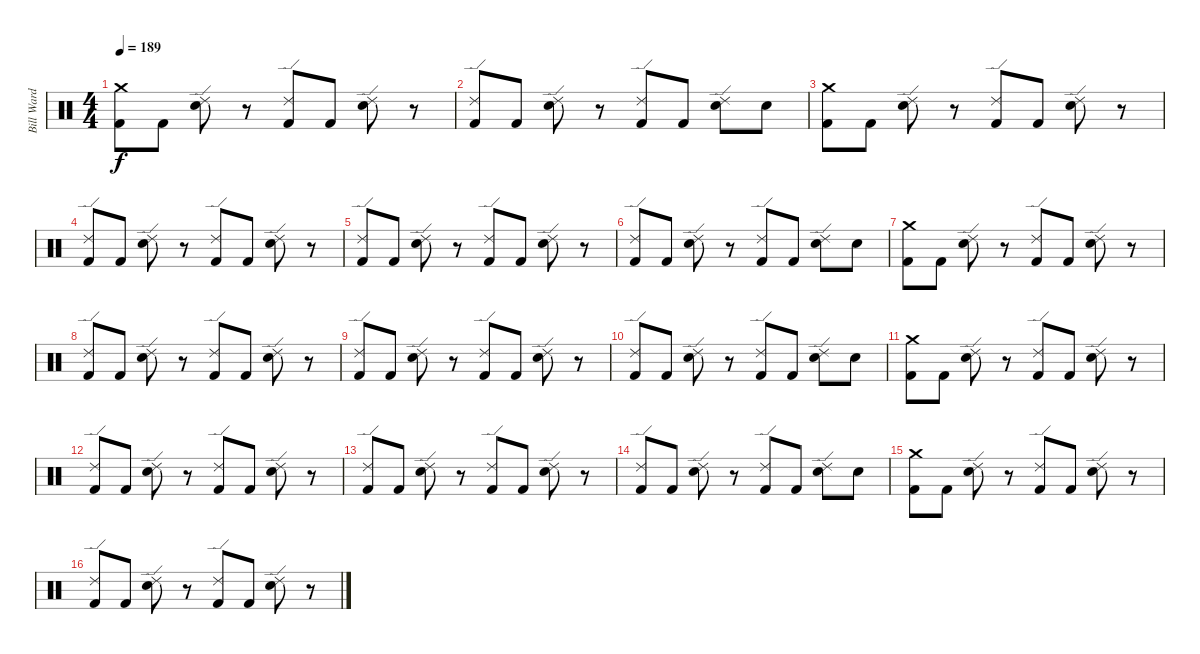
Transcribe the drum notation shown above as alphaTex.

\track ("Bill Ward" "Bill Ward") {instrument percussion}
\staff {score}
\articulation defaults
\ts (4 4)
\tempo 189
\clef neutral
\ks c
("Crash medium (hit)" "Kick (hit) 2").8{dy f} "Kick (hit) 2".8 ("Ride (edge) 2" "Electric Snare (hit)").8 r.8 ("Kick (hit) 2" "Ride (edge) 2").8 "Kick (hit) 2".8 ("Ride (edge) 2" "Electric Snare (hit)").8 r.8 |
("Kick (hit) 2" "Ride (edge) 2").8 "Kick (hit) 2".8 ("Ride (edge) 2" "Electric Snare (hit)").8 r.8 ("Ride (edge) 2" "Kick (hit) 2").8 "Kick (hit) 2".8 ("Electric Snare (hit)" "Ride (edge) 2").8 "Electric Snare (hit)".8 |
("Kick (hit) 2" "Crash medium (hit)").8 "Kick (hit) 2".8 ("Electric Snare (hit)" "Ride (edge) 2").8 r.8 ("Ride (edge) 2" "Kick (hit) 2").8 "Kick (hit) 2".8 ("Electric Snare (hit)" "Ride (edge) 2").8 r.8 |
("Ride (edge) 2" "Kick (hit) 2").8 "Kick (hit) 2".8 ("Electric Snare (hit)" "Ride (edge) 2").8 r.8 ("Ride (edge) 2" "Kick (hit) 2").8 "Kick (hit) 2".8 ("Electric Snare (hit)" "Ride (edge) 2").8 r.8 |
("Ride (edge) 2" "Kick (hit) 2").8 "Kick (hit) 2".8 ("Electric Snare (hit)" "Ride (edge) 2").8 r.8 ("Kick (hit) 2" "Ride (edge) 2").8 "Kick (hit) 2".8 ("Ride (edge) 2" "Electric Snare (hit)").8 r.8 |
("Ride (edge) 2" "Kick (hit) 2").8 "Kick (hit) 2".8 ("Ride (edge) 2" "Electric Snare (hit)").8 r.8 ("Ride (edge) 2" "Kick (hit) 2").8 "Kick (hit) 2".8 ("Ride (edge) 2" "Electric Snare (hit)").8 "Electric Snare (hit)".8 |
("Kick (hit) 2" "Crash medium (hit)").8 "Kick (hit) 2".8 ("Ride (edge) 2" "Electric Snare (hit)").8 r.8 ("Kick (hit) 2" "Ride (edge) 2").8 "Kick (hit) 2".8 ("Electric Snare (hit)" "Ride (edge) 2").8 r.8 |
("Kick (hit) 2" "Ride (edge) 2").8 "Kick (hit) 2".8 ("Electric Snare (hit)" "Ride (edge) 2").8 r.8 ("Kick (hit) 2" "Ride (edge) 2").8 "Kick (hit) 2".8 ("Electric Snare (hit)" "Ride (edge) 2").8 r.8 |
("Ride (edge) 2" "Kick (hit) 2").8 "Kick (hit) 2".8 ("Ride (edge) 2" "Electric Snare (hit)").8 r.8 ("Ride (edge) 2" "Kick (hit) 2").8 "Kick (hit) 2".8 ("Ride (edge) 2" "Electric Snare (hit)").8 r.8 |
("Ride (edge) 2" "Kick (hit) 2").8 "Kick (hit) 2".8 ("Ride (edge) 2" "Electric Snare (hit)").8 r.8 ("Kick (hit) 2" "Ride (edge) 2").8 "Kick (hit) 2".8 ("Ride (edge) 2" "Electric Snare (hit)").8 "Electric Snare (hit)".8 |
("Kick (hit) 2" "Crash medium (hit)").8 "Kick (hit) 2".8 ("Ride (edge) 2" "Electric Snare (hit)").8 r.8 ("Kick (hit) 2" "Ride (edge) 2").8 "Kick (hit) 2".8 ("Ride (edge) 2" "Electric Snare (hit)").8 r.8 |
("Ride (edge) 2" "Kick (hit) 2").8 "Kick (hit) 2".8 ("Ride (edge) 2" "Electric Snare (hit)").8 r.8 ("Ride (edge) 2" "Kick (hit) 2").8 "Kick (hit) 2".8 ("Electric Snare (hit)" "Ride (edge) 2").8 r.8 |
("Kick (hit) 2" "Ride (edge) 2").8 "Kick (hit) 2".8 ("Ride (edge) 2" "Electric Snare (hit)").8 r.8 ("Kick (hit) 2" "Ride (edge) 2").8 "Kick (hit) 2".8 ("Ride (edge) 2" "Electric Snare (hit)").8 r.8 |
("Kick (hit) 2" "Ride (edge) 2").8 "Kick (hit) 2".8 ("Electric Snare (hit)" "Ride (edge) 2").8 r.8 ("Ride (edge) 2" "Kick (hit) 2").8 "Kick (hit) 2".8 ("Ride (edge) 2" "Electric Snare (hit)").8 "Electric Snare (hit)".8 |
("Crash medium (hit)" "Kick (hit) 2").8 "Kick (hit) 2".8 ("Electric Snare (hit)" "Ride (edge) 2").8 r.8 ("Ride (edge) 2" "Kick (hit) 2").8 "Kick (hit) 2".8 ("Ride (edge) 2" "Electric Snare (hit)").8 r.8 |
("Kick (hit) 2" "Ride (edge) 2").8 "Kick (hit) 2".8 ("Ride (edge) 2" "Electric Snare (hit)").8 r.8 ("Kick (hit) 2" "Ride (edge) 2").8 "Kick (hit) 2".8 ("Electric Snare (hit)" "Ride (edge) 2").8 r.8
